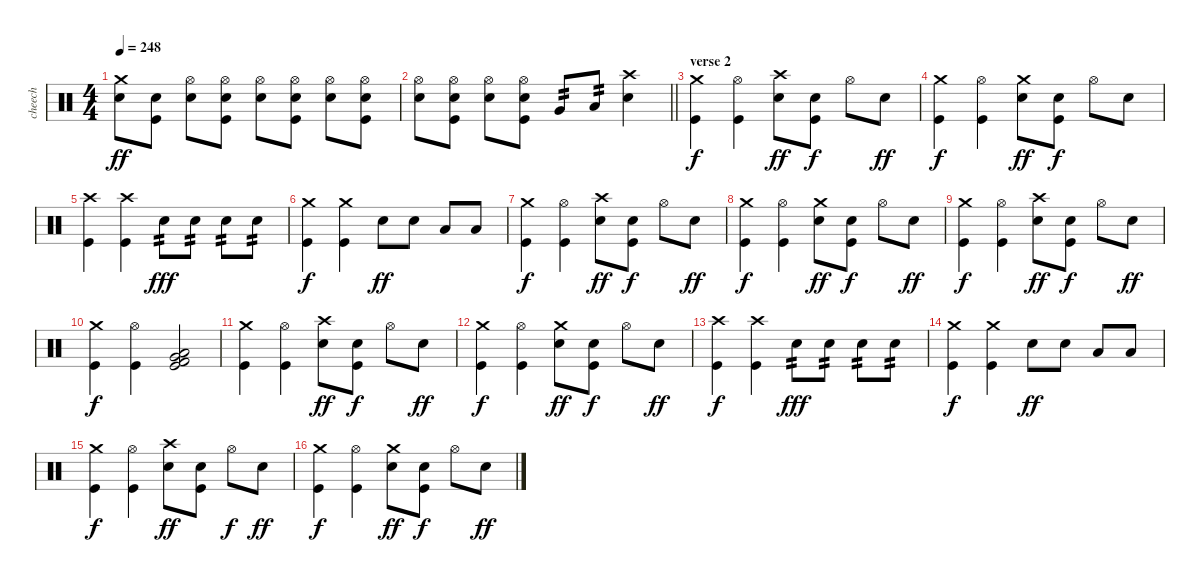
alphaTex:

\track ("cheech" "cheech") {instrument percussion}
\staff {score}
\articulation defaults
\ts (4 4)
\tempo 248
\clef neutral
\ks c
("Crash medium (hit)" "Electric Snare (hit)").8{dy ff} ("Electric Snare (hit)" "Kick (hit)").8 ("Hi-Hat (open)" "Electric Snare (hit)").8 ("Hi-Hat (open)" "Electric Snare (hit)" "Kick (hit)").8 ("Hi-Hat (open)" "Electric Snare (hit)").8 ("Hi-Hat (open)" "Electric Snare (hit)" "Kick (hit)").8 ("Hi-Hat (open)" "Electric Snare (hit)").8 ("Hi-Hat (open)" "Electric Snare (hit)" "Kick (hit)").8 |
\barLineRight lightlight
("Hi-Hat (open)" "Electric Snare (hit)").8 ("Hi-Hat (open)" "Electric Snare (hit)" "Kick (hit)").8 ("Hi-Hat (open)" "Electric Snare (hit)").8 ("Hi-Hat (open)" "Electric Snare (hit)" "Kick (hit)").8 "Very Low Tom (hit)".8{tp 2} "Low Floor Tom (hit)".8{tp 2} ("Crash high (hit)" "Electric Snare (hit)").4 |
\section ("" "verse 2")
("Crash medium (hit)" "Kick (hit)").4{dy f} ("Hi-Hat (open)" "Kick (hit)").4 ("Crash high (hit)" "Electric Snare (hit)").8{dy ff} ("Electric Snare (hit)" "Kick (hit)").8{dy f} "Hi-Hat (open)".8 "Electric Snare (hit)".8{dy ff} |
("Crash medium (hit)" "Kick (hit)").4{dy f} ("Hi-Hat (open)" "Kick (hit)").4 ("Crash medium (hit)" "Electric Snare (hit)").8{dy ff} ("Electric Snare (hit)" "Kick (hit)").8{dy f} "Hi-Hat (open)".8 "Electric Snare (hit)".8 |
("Crash high (hit)" "Kick (hit)").4 ("Crash high (hit)" "Kick (hit)").4 "Electric Snare (hit)".8{tp 2 dy fff} "Electric Snare (hit)".8{tp 2} "Electric Snare (hit)".8{tp 2} "Electric Snare (hit)".8{tp 2} |
("Crash medium (hit)" "Kick (hit)").4{dy f} ("Crash medium (hit)" "Kick (hit)").4 "Electric Snare (hit)".8{dy ff} "Electric Snare (hit)".8 "Low Tom (hit)".8 "Low Floor Tom (hit)".8 |
("Crash medium (hit)" "Kick (hit)").4{dy f} ("Hi-Hat (open)" "Kick (hit)").4 ("Crash high (hit)" "Electric Snare (hit)").8{dy ff} ("Electric Snare (hit)" "Kick (hit)").8{dy f} "Hi-Hat (open)".8 "Electric Snare (hit)".8{dy ff} |
("Crash medium (hit)" "Kick (hit)").4{dy f} ("Hi-Hat (open)" "Kick (hit)").4 ("Crash medium (hit)" "Electric Snare (hit)").8{dy ff} ("Electric Snare (hit)" "Kick (hit)").8{dy f} "Hi-Hat (open)".8 "Electric Snare (hit)".8{dy ff} |
("Crash medium (hit)" "Kick (hit)").4{dy f} ("Hi-Hat (open)" "Kick (hit)").4 ("Crash high (hit)" "Electric Snare (hit)").8{dy ff} ("Electric Snare (hit)" "Kick (hit)").8{dy f} "Hi-Hat (open)".8 "Electric Snare (hit)".8{dy ff} |
("Crash medium (hit)" "Kick (hit)").4{dy f} ("Hi-Hat (open)" "Kick (hit)").4 ("Very Low Tom (hit)" "Low Floor Tom (hit)" "Kick (hit) 2" "Kick (hit)").2 |
("Crash medium (hit)" "Kick (hit)").4 ("Hi-Hat (open)" "Kick (hit)").4 ("Crash high (hit)" "Electric Snare (hit)").8{dy ff} ("Electric Snare (hit)" "Kick (hit)").8{dy f} "Hi-Hat (open)".8 "Electric Snare (hit)".8{dy ff} |
("Crash medium (hit)" "Kick (hit)").4{dy f} ("Hi-Hat (open)" "Kick (hit)").4 ("Crash medium (hit)" "Electric Snare (hit)").8{dy ff} ("Electric Snare (hit)" "Kick (hit)").8{dy f} "Hi-Hat (open)".8 "Electric Snare (hit)".8{dy ff} |
("Crash high (hit)" "Kick (hit)").4{dy f} ("Crash high (hit)" "Kick (hit)").4 "Electric Snare (hit)".8{tp 2 dy fff} "Electric Snare (hit)".8{tp 2} "Electric Snare (hit)".8{tp 2} "Electric Snare (hit)".8{tp 2} |
("Crash medium (hit)" "Kick (hit)").4{dy f} ("Crash medium (hit)" "Kick (hit)").4 "Electric Snare (hit)".8{dy ff} "Electric Snare (hit)".8 "Low Tom (hit)".8 "Low Floor Tom (hit)".8 |
("Crash medium (hit)" "Kick (hit)").4{dy f} ("Hi-Hat (open)" "Kick (hit)").4 ("Crash high (hit)" "Electric Snare (hit)").8{dy ff} ("Electric Snare (hit)" "Kick (hit)").8 "Hi-Hat (open)".8{dy f} "Electric Snare (hit)".8{dy ff} |
("Crash medium (hit)" "Kick (hit)").4{dy f} ("Hi-Hat (open)" "Kick (hit)").4 ("Crash medium (hit)" "Electric Snare (hit)").8{dy ff} ("Electric Snare (hit)" "Kick (hit)").8{dy f} "Hi-Hat (open)".8 "Electric Snare (hit)".8{dy ff}
